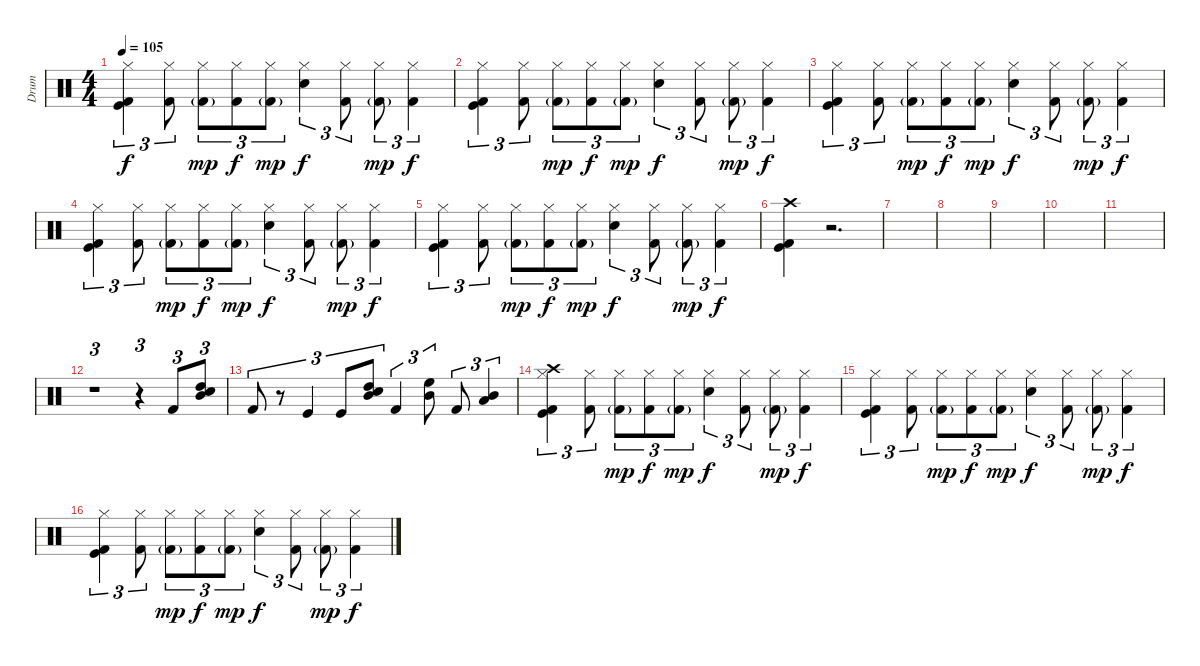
\track ("Drum" "Drum") {instrument percussion}
\staff {score}
\articulation defaults
\ts (4 4)
\tempo 105
\clef neutral
\ks c
("Kick (hit)" "Kick (hit) 2" "Hi-Hat (closed)").4{tu (3 2) dy f} ("Kick (hit) 2" "Hi-Hat (closed)").8{tu (3 2)} ("Kick (hit) 2"{g} "Hi-Hat (closed)").8{tu (3 2) dy mp} ("Kick (hit) 2" "Hi-Hat (closed)").8{tu (3 2) dy f} ("Kick (hit) 2"{g} "Hi-Hat (closed)").8{tu (3 2) dy mp} ("Snare (hit) 2" "Hi-Hat (closed)").4{tu (3 2) dy f} ("Kick (hit) 2" "Hi-Hat (closed)").8{tu (3 2)} ("Kick (hit) 2"{g} "Hi-Hat (closed)").8{tu (3 2) dy mp} ("Kick (hit) 2" "Hi-Hat (closed)").4{tu (3 2) dy f} |
("Kick (hit)" "Kick (hit) 2" "Hi-Hat (closed)").4{tu (3 2)} ("Kick (hit) 2" "Hi-Hat (closed)").8{tu (3 2)} ("Kick (hit) 2"{g} "Hi-Hat (closed)").8{tu (3 2) dy mp} ("Kick (hit) 2" "Hi-Hat (closed)").8{tu (3 2) dy f} ("Kick (hit) 2"{g} "Hi-Hat (closed)").8{tu (3 2) dy mp} ("Snare (hit) 2" "Hi-Hat (closed)").4{tu (3 2) dy f} ("Kick (hit) 2" "Hi-Hat (closed)").8{tu (3 2)} ("Kick (hit) 2"{g} "Hi-Hat (closed)").8{tu (3 2) dy mp} ("Kick (hit) 2" "Hi-Hat (closed)").4{tu (3 2) dy f} |
("Kick (hit)" "Kick (hit) 2" "Hi-Hat (closed)").4{tu (3 2)} ("Kick (hit) 2" "Hi-Hat (closed)").8{tu (3 2)} ("Kick (hit) 2"{g} "Hi-Hat (closed)").8{tu (3 2) dy mp} ("Kick (hit) 2" "Hi-Hat (closed)").8{tu (3 2) dy f} ("Kick (hit) 2"{g} "Hi-Hat (closed)").8{tu (3 2) dy mp} ("Snare (hit) 2" "Hi-Hat (closed)").4{tu (3 2) dy f} ("Kick (hit) 2" "Hi-Hat (closed)").8{tu (3 2)} ("Kick (hit) 2"{g} "Hi-Hat (closed)").8{tu (3 2) dy mp} ("Kick (hit) 2" "Hi-Hat (closed)").4{tu (3 2) dy f} |
("Kick (hit)" "Kick (hit) 2" "Hi-Hat (closed)").4{tu (3 2)} ("Kick (hit) 2" "Hi-Hat (closed)").8{tu (3 2)} ("Kick (hit) 2"{g} "Hi-Hat (closed)").8{tu (3 2) dy mp} ("Kick (hit) 2" "Hi-Hat (closed)").8{tu (3 2) dy f} ("Kick (hit) 2"{g} "Hi-Hat (closed)").8{tu (3 2) dy mp} ("Snare (hit) 2" "Hi-Hat (closed)").4{tu (3 2) dy f} ("Kick (hit) 2" "Hi-Hat (closed)").8{tu (3 2)} ("Kick (hit) 2"{g} "Hi-Hat (closed)").8{tu (3 2) dy mp} ("Kick (hit) 2" "Hi-Hat (closed)").4{tu (3 2) dy f} |
("Kick (hit)" "Kick (hit) 2" "Hi-Hat (closed)").4{tu (3 2)} ("Kick (hit) 2" "Hi-Hat (closed)").8{tu (3 2)} ("Kick (hit) 2"{g} "Hi-Hat (closed)").8{tu (3 2) dy mp} ("Kick (hit) 2" "Hi-Hat (closed)").8{tu (3 2) dy f} ("Kick (hit) 2"{g} "Hi-Hat (closed)").8{tu (3 2) dy mp} ("Snare (hit) 2" "Hi-Hat (closed)").4{tu (3 2) dy f} ("Kick (hit) 2" "Hi-Hat (closed)").8{tu (3 2)} ("Kick (hit) 2"{g} "Hi-Hat (closed)").8{tu (3 2) dy mp} ("Kick (hit) 2" "Hi-Hat (closed)").4{tu (3 2) dy f} |
("Crash high (hit)" "Kick (hit) 2" "Kick (hit)").4 r.2{d} |
|
|
|
|
|
r.1{tu (3 2)} r.4{tu (3 2)} "Kick (hit) 2".8{tu (3 2)} ("Mid Tom (hit)" "Electric Snare (hit)" "High Tom (hit)").8{tu (3 2)} |
"Kick (hit) 2".8{tu (3 2)} r.8{tu (3 2)} "Kick (hit)".4{tu (3 2)} "Kick (hit)".8{tu (3 2)} ("Mid Tom (hit)" "Electric Snare (hit)" "High Tom (hit)").8{tu (3 2)} "Kick (hit) 2".4{tu (3 2)} ("Mid Tom (hit)" "High Floor Tom (hit)").8{tu (3 2)} "Kick (hit) 2".8{tu (3 2)} ("Mid Tom (hit)" "Low Tom (hit)").4{tu (3 2)} |
("Kick (hit)" "Kick (hit) 2" "Hi-Hat (closed)" "Crash high (hit)").4{tu (3 2)} ("Kick (hit) 2" "Hi-Hat (closed)").8{tu (3 2)} ("Kick (hit) 2"{g} "Hi-Hat (closed)").8{tu (3 2) dy mp} ("Kick (hit) 2" "Hi-Hat (closed)").8{tu (3 2) dy f} ("Kick (hit) 2"{g} "Hi-Hat (closed)").8{tu (3 2) dy mp} ("Snare (hit) 2" "Hi-Hat (closed)").4{tu (3 2) dy f} ("Kick (hit) 2" "Hi-Hat (closed)").8{tu (3 2)} ("Kick (hit) 2"{g} "Hi-Hat (closed)").8{tu (3 2) dy mp} ("Kick (hit) 2" "Hi-Hat (closed)").4{tu (3 2) dy f} |
("Kick (hit)" "Kick (hit) 2" "Hi-Hat (closed)").4{tu (3 2)} ("Kick (hit) 2" "Hi-Hat (closed)").8{tu (3 2)} ("Kick (hit) 2"{g} "Hi-Hat (closed)").8{tu (3 2) dy mp} ("Kick (hit) 2" "Hi-Hat (closed)").8{tu (3 2) dy f} ("Kick (hit) 2"{g} "Hi-Hat (closed)").8{tu (3 2) dy mp} ("Snare (hit) 2" "Hi-Hat (closed)").4{tu (3 2) dy f} ("Kick (hit) 2" "Hi-Hat (closed)").8{tu (3 2)} ("Kick (hit) 2"{g} "Hi-Hat (closed)").8{tu (3 2) dy mp} ("Kick (hit) 2" "Hi-Hat (closed)").4{tu (3 2) dy f} |
("Kick (hit)" "Kick (hit) 2" "Hi-Hat (closed)").4{tu (3 2)} ("Kick (hit) 2" "Hi-Hat (closed)").8{tu (3 2)} ("Kick (hit) 2"{g} "Hi-Hat (closed)").8{tu (3 2) dy mp} ("Kick (hit) 2" "Hi-Hat (closed)").8{tu (3 2) dy f} ("Kick (hit) 2"{g} "Hi-Hat (closed)").8{tu (3 2) dy mp} ("Snare (hit) 2" "Hi-Hat (closed)").4{tu (3 2) dy f} ("Kick (hit) 2" "Hi-Hat (closed)").8{tu (3 2)} ("Kick (hit) 2"{g} "Hi-Hat (closed)").8{tu (3 2) dy mp} ("Kick (hit) 2" "Hi-Hat (closed)").4{tu (3 2) dy f}
